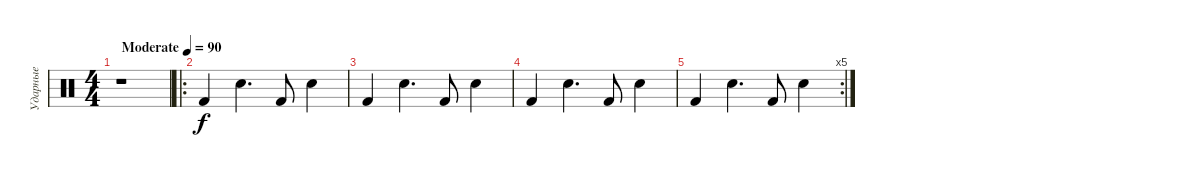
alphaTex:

\track ("Ударные" "Ударные") {instrument percussion}
\staff {score}
\articulation defaults
\ts (4 4)
\tempo (90 "Moderate")
\clef neutral
\ks c
r.1{dy f} |
\ro "Kick (hit) 2".4 "Snare (hit) 2".4{d} "Kick (hit) 2".8 "Snare (hit) 2".4
|
"Kick (hit) 2".4 "Snare (hit) 2".4{d} "Kick (hit) 2".8 "Snare (hit) 2".4 |
"Kick (hit) 2".4 "Snare (hit) 2".4{d} "Kick (hit) 2".8 "Snare (hit) 2".4 |
\rc 5 "Kick (hit) 2".4 "Snare (hit) 2".4{d} "Kick (hit) 2".8 "Snare (hit) 2".4
